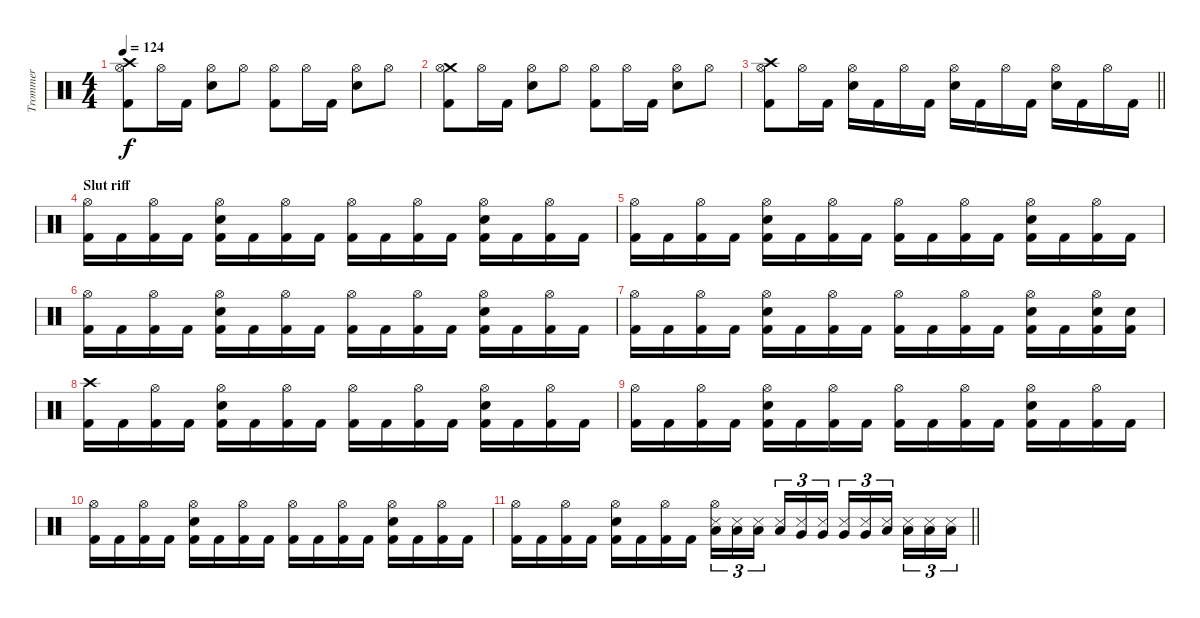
\track ("Trommer" "Trommer") {instrument percussion}
\staff {score}
\articulation defaults
\ts (4 4)
\tempo 124
\clef neutral
\ks c
("Crash high (hit)" "Hi-Hat (open)" "Kick (hit) 2").8{dy f} "Hi-Hat (open)".16 "Kick (hit) 2".16 ("Hi-Hat (open)" "Electric Snare (hit)").8 "Hi-Hat (open)".8 ("Hi-Hat (open)" "Kick (hit) 2").8 "Hi-Hat (open)".16 "Kick (hit) 2".16 ("Hi-Hat (open)" "Electric Snare (hit)").8 "Hi-Hat (open)".8 |
("Crash medium (hit)" "Hi-Hat (open)" "Kick (hit) 2").8 "Hi-Hat (open)".16 "Kick (hit) 2".16 ("Hi-Hat (open)" "Electric Snare (hit)").8 "Hi-Hat (open)".8 ("Hi-Hat (open)" "Kick (hit) 2").8 "Hi-Hat (open)".16 "Kick (hit) 2".16 ("Hi-Hat (open)" "Electric Snare (hit)").8 "Hi-Hat (open)".8 |
\barLineRight lightlight
("Crash high (hit)" "Hi-Hat (open)" "Kick (hit) 2").8 "Hi-Hat (open)".16 "Kick (hit) 2".16 ("Hi-Hat (open)" "Electric Snare (hit)").16 "Kick (hit) 2".16 "Hi-Hat (open)".16 "Kick (hit) 2".16 ("Hi-Hat (open)" "Electric Snare (hit)").16 "Kick (hit) 2".16 "Hi-Hat (open)".16 "Kick (hit) 2".16 ("Hi-Hat (open)" "Electric Snare (hit)").16 "Kick (hit) 2".16 "Hi-Hat (open)".16 "Kick (hit) 2".16 |
\section ("" "Slut riff")
("Hi-Hat (open)" "Kick (hit) 2").16 "Kick (hit) 2".16 ("Hi-Hat (open)" "Kick (hit) 2").16 "Kick (hit) 2".16 ("Hi-Hat (open)" "Electric Snare (hit)" "Kick (hit) 2").16 "Kick (hit) 2".16 ("Hi-Hat (open)" "Kick (hit) 2").16 "Kick (hit) 2".16 ("Hi-Hat (open)" "Kick (hit) 2").16 "Kick (hit) 2".16 ("Hi-Hat (open)" "Kick (hit) 2").16 "Kick (hit) 2".16 ("Hi-Hat (open)" "Electric Snare (hit)" "Kick (hit) 2").16 "Kick (hit) 2".16 ("Hi-Hat (open)" "Kick (hit) 2").16 "Kick (hit) 2".16 |
("Hi-Hat (open)" "Kick (hit) 2").16 "Kick (hit) 2".16 ("Hi-Hat (open)" "Kick (hit) 2").16 "Kick (hit) 2".16 ("Hi-Hat (open)" "Electric Snare (hit)" "Kick (hit) 2").16 "Kick (hit) 2".16 ("Hi-Hat (open)" "Kick (hit) 2").16 "Kick (hit) 2".16 ("Hi-Hat (open)" "Kick (hit) 2").16 "Kick (hit) 2".16 ("Hi-Hat (open)" "Kick (hit) 2").16 "Kick (hit) 2".16 ("Hi-Hat (open)" "Electric Snare (hit)" "Kick (hit) 2").16 "Kick (hit) 2".16 ("Hi-Hat (open)" "Kick (hit) 2").16 "Kick (hit) 2".16 |
("Hi-Hat (open)" "Kick (hit) 2").16 "Kick (hit) 2".16 ("Hi-Hat (open)" "Kick (hit) 2").16 "Kick (hit) 2".16 ("Hi-Hat (open)" "Electric Snare (hit)" "Kick (hit) 2").16 "Kick (hit) 2".16 ("Hi-Hat (open)" "Kick (hit) 2").16 "Kick (hit) 2".16 ("Hi-Hat (open)" "Kick (hit) 2").16 "Kick (hit) 2".16 ("Hi-Hat (open)" "Kick (hit) 2").16 "Kick (hit) 2".16 ("Hi-Hat (open)" "Electric Snare (hit)" "Kick (hit) 2").16 "Kick (hit) 2".16 ("Hi-Hat (open)" "Kick (hit) 2").16 "Kick (hit) 2".16 |
("Hi-Hat (open)" "Kick (hit) 2").16 "Kick (hit) 2".16 ("Hi-Hat (open)" "Kick (hit) 2").16 "Kick (hit) 2".16 ("Hi-Hat (open)" "Electric Snare (hit)" "Kick (hit) 2").16 "Kick (hit) 2".16 ("Hi-Hat (open)" "Kick (hit) 2").16 "Kick (hit) 2".16 ("Hi-Hat (open)" "Kick (hit) 2").16 "Kick (hit) 2".16 ("Hi-Hat (open)" "Kick (hit) 2").16 "Kick (hit) 2".16 ("Hi-Hat (open)" "Electric Snare (hit)" "Kick (hit) 2").16 "Kick (hit) 2".16 ("Hi-Hat (open)" "Electric Snare (hit)" "Kick (hit) 2").16 ("Electric Snare (hit)" "Kick (hit) 2").16 |
("Crash high (hit)" "Kick (hit) 2").16 "Kick (hit) 2".16 ("Hi-Hat (open)" "Kick (hit) 2").16 "Kick (hit) 2".16 ("Hi-Hat (open)" "Electric Snare (hit)" "Kick (hit) 2").16 "Kick (hit) 2".16 ("Hi-Hat (open)" "Kick (hit) 2").16 "Kick (hit) 2".16 ("Hi-Hat (open)" "Kick (hit) 2").16 "Kick (hit) 2".16 ("Hi-Hat (open)" "Kick (hit) 2").16 "Kick (hit) 2".16 ("Hi-Hat (open)" "Electric Snare (hit)" "Kick (hit) 2").16 "Kick (hit) 2".16 ("Hi-Hat (open)" "Kick (hit) 2").16 "Kick (hit) 2".16 |
("Hi-Hat (open)" "Kick (hit) 2").16 "Kick (hit) 2".16 ("Hi-Hat (open)" "Kick (hit) 2").16 "Kick (hit) 2".16 ("Hi-Hat (open)" "Electric Snare (hit)" "Kick (hit) 2").16 "Kick (hit) 2".16 ("Hi-Hat (open)" "Kick (hit) 2").16 "Kick (hit) 2".16 ("Hi-Hat (open)" "Kick (hit) 2").16 "Kick (hit) 2".16 ("Hi-Hat (open)" "Kick (hit) 2").16 "Kick (hit) 2".16 ("Hi-Hat (open)" "Electric Snare (hit)" "Kick (hit) 2").16 "Kick (hit) 2".16 ("Hi-Hat (open)" "Kick (hit) 2").16 "Kick (hit) 2".16 |
("Hi-Hat (open)" "Kick (hit) 2").16 "Kick (hit) 2".16 ("Hi-Hat (open)" "Kick (hit) 2").16 "Kick (hit) 2".16 ("Hi-Hat (open)" "Electric Snare (hit)" "Kick (hit) 2").16 "Kick (hit) 2".16 ("Hi-Hat (open)" "Kick (hit) 2").16 "Kick (hit) 2".16 ("Hi-Hat (open)" "Kick (hit) 2").16 "Kick (hit) 2".16 ("Hi-Hat (open)" "Kick (hit) 2").16 "Kick (hit) 2".16 ("Hi-Hat (open)" "Electric Snare (hit)" "Kick (hit) 2").16 "Kick (hit) 2".16 ("Hi-Hat (open)" "Kick (hit) 2").16 "Kick (hit) 2".16 |
\barLineRight lightlight
("Hi-Hat (open)" "Kick (hit) 2").16 "Kick (hit) 2".16 ("Hi-Hat (open)" "Kick (hit) 2").16 "Kick (hit) 2".16 ("Hi-Hat (open)" "Electric Snare (hit)" "Kick (hit) 2").16 "Kick (hit) 2".16 ("Hi-Hat (open)" "Kick (hit) 2").16 "Kick (hit) 2".16 ("Hi-Hat (open)" "Snare (side stick) 3" "Low Tom (hit)").16{tu (3 2)} ("Snare (side stick) 3" "Low Tom (hit)").16{tu (3 2)} ("Snare (side stick) 3" "Low Tom (hit)").16{tu (3 2) beam splitsecondary} ("Snare (side stick) 3" "Low Tom (hit)").16{tu (3 2)} ("Snare (side stick) 3" "Very Low Tom (hit)").16{tu (3 2)} ("Snare (side stick) 3" "Very Low Tom (hit)").16{tu (3 2)} ("Snare (side stick) 3" "Very Low Tom (hit)").16{tu (3 2)} ("Snare (side stick) 3" "Very Low Tom (hit)").16{tu (3 2)} ("Snare (side stick) 3" "Low Floor Tom (hit)").16{tu (3 2) beam splitsecondary} ("Snare (side stick) 3" "Low Floor Tom (hit)").16{tu (3 2)} ("Snare (side stick) 3" "Low Floor Tom (hit)").16{tu (3 2)} ("Snare (side stick) 3" "Low Floor Tom (hit)").16{tu (3 2)}
